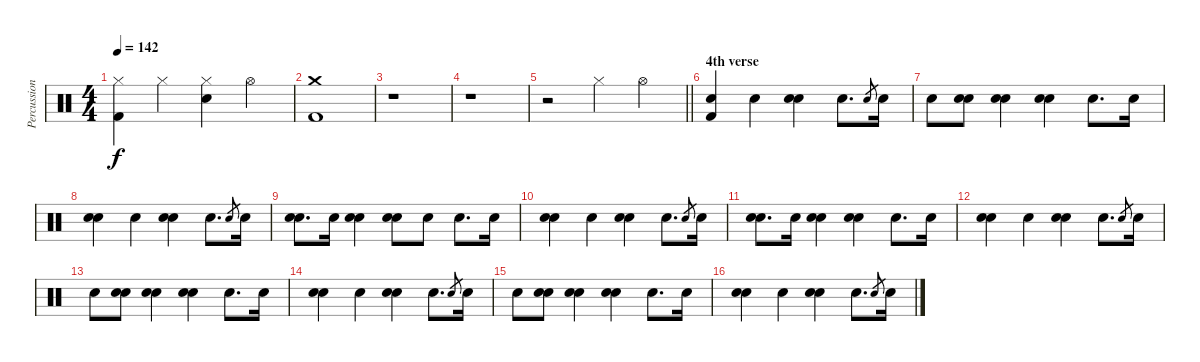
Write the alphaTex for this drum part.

\track ("Percussions" "Percussion") {instrument percussion}
\staff {score}
\articulation defaults
\ts (4 4)
\tempo 142
\clef neutral
\ks c
("Hi-Hat (closed)" "Kick (hit) 2").4{dy f} "Hi-Hat (closed)".4 ("Hi-Hat (closed)" "Electric Snare (hit)").4 "Hi-Hat (open)".4 |
("Crash medium (hit)" "Kick (hit) 2").1 |
r.1 |
r.1 |
\barLineRight lightlight
r.2 "Hi-Hat (closed)".4 "Hi-Hat (open)".4 |
\section ("" "4th verse")
("Electric Snare (hit)" "Kick (hit) 2").4 "Electric Snare (hit)".4 ("Electric Snare (hit)" "Electric Snare (hit)").4 "Electric Snare (hit)".8{d} "Electric Snare (hit)".8{gr} "Electric Snare (hit)".16 |
"Electric Snare (hit)".8 ("Electric Snare (hit)" "Electric Snare (hit)").8 ("Electric Snare (hit)" "Electric Snare (hit)").4 ("Electric Snare (hit)" "Electric Snare (hit)").4 "Electric Snare (hit)".8{d} "Electric Snare (hit)".16 |
("Electric Snare (hit)" "Electric Snare (hit)").4 "Electric Snare (hit)".4 ("Electric Snare (hit)" "Electric Snare (hit)").4 "Electric Snare (hit)".8{d} "Electric Snare (hit)".8{gr} "Electric Snare (hit)".16 |
("Electric Snare (hit)" "Electric Snare (hit)").8{d} "Electric Snare (hit)".16 ("Electric Snare (hit)" "Electric Snare (hit)").4 ("Electric Snare (hit)" "Electric Snare (hit)").8 "Electric Snare (hit)".8 "Electric Snare (hit)".8{d} "Electric Snare (hit)".16 |
("Electric Snare (hit)" "Electric Snare (hit)").4 "Electric Snare (hit)".4 ("Electric Snare (hit)" "Electric Snare (hit)").4 "Electric Snare (hit)".8{d} "Electric Snare (hit)".8{gr} "Electric Snare (hit)".16 |
("Electric Snare (hit)" "Electric Snare (hit)").8{d} "Electric Snare (hit)".16 ("Electric Snare (hit)" "Electric Snare (hit)").4 ("Electric Snare (hit)" "Electric Snare (hit)").4 "Electric Snare (hit)".8{d} "Electric Snare (hit)".16 |
("Electric Snare (hit)" "Electric Snare (hit)").4 "Electric Snare (hit)".4 ("Electric Snare (hit)" "Electric Snare (hit)").4 "Electric Snare (hit)".8{d} "Electric Snare (hit)".8{gr} "Electric Snare (hit)".16 |
"Electric Snare (hit)".8 ("Electric Snare (hit)" "Electric Snare (hit)").8 ("Electric Snare (hit)" "Electric Snare (hit)").4 ("Electric Snare (hit)" "Electric Snare (hit)").4 "Electric Snare (hit)".8{d} "Electric Snare (hit)".16 |
("Electric Snare (hit)" "Electric Snare (hit)").4 "Electric Snare (hit)".4 ("Electric Snare (hit)" "Electric Snare (hit)").4 "Electric Snare (hit)".8{d} "Electric Snare (hit)".8{gr} "Electric Snare (hit)".16 |
"Electric Snare (hit)".8 ("Electric Snare (hit)" "Electric Snare (hit)").8 ("Electric Snare (hit)" "Electric Snare (hit)").4 ("Electric Snare (hit)" "Electric Snare (hit)").4 "Electric Snare (hit)".8{d} "Electric Snare (hit)".16 |
("Electric Snare (hit)" "Electric Snare (hit)").4 "Electric Snare (hit)".4 ("Electric Snare (hit)" "Electric Snare (hit)").4 "Electric Snare (hit)".8{d} "Electric Snare (hit)".8{gr} "Electric Snare (hit)".16
